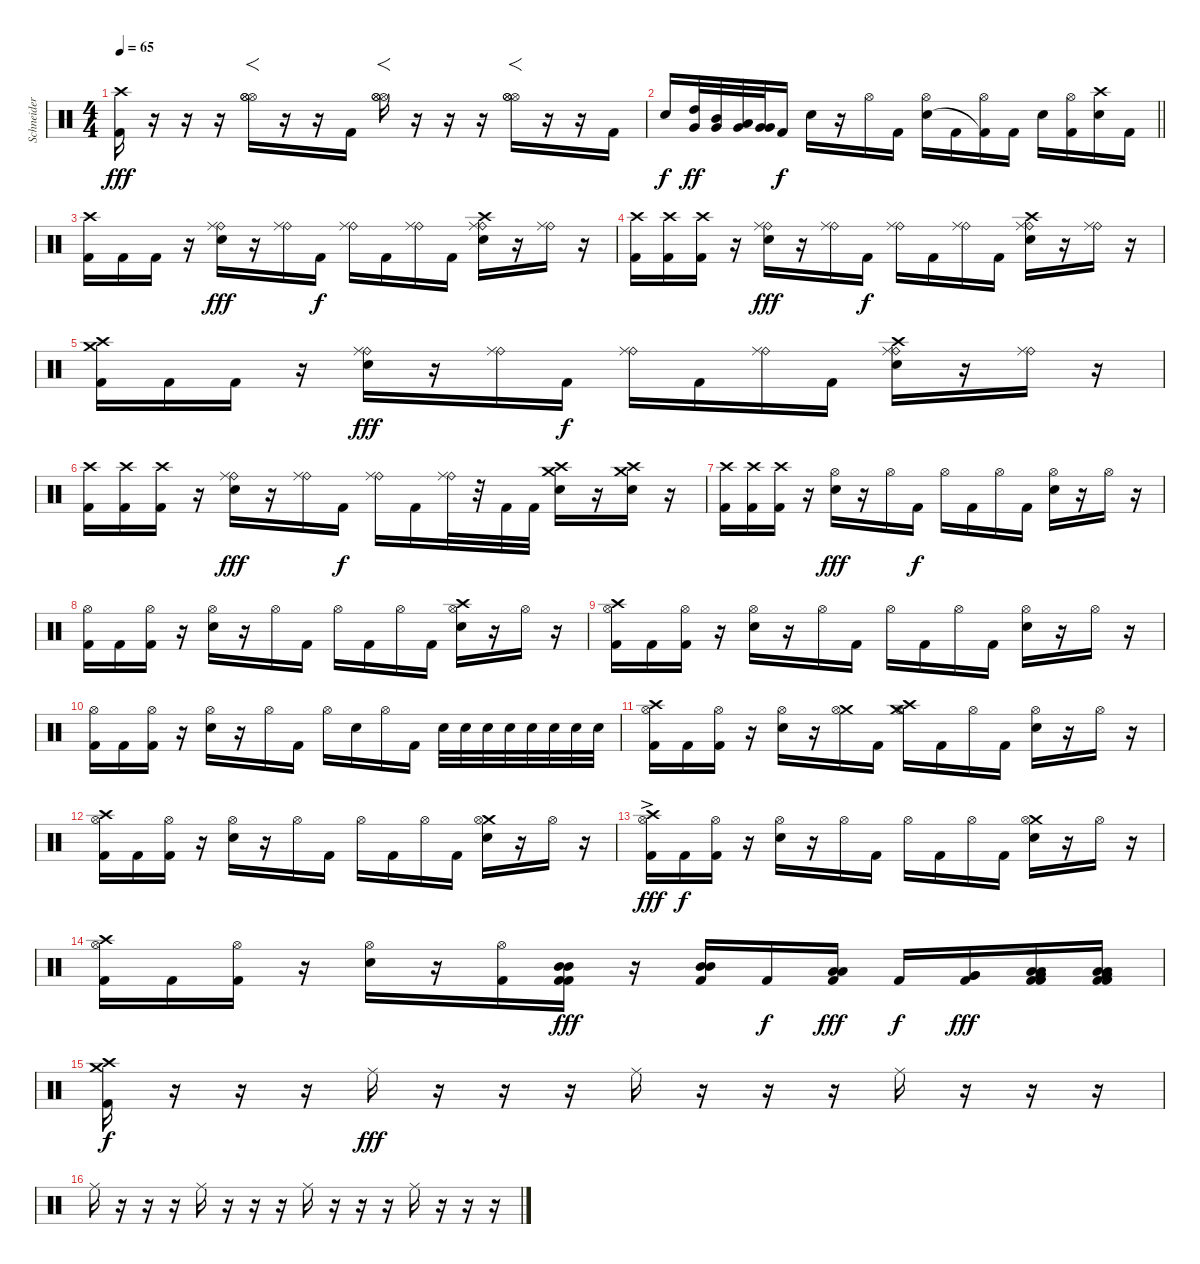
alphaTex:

\track ("Schneider" "Schneider") {instrument percussion}
\staff {score}
\articulation defaults
\ts (4 4)
\tempo 65
\clef neutral
\ks c
("Crash high (hit)" "Kick (hit) 2").16{dy fff} r.16 r.16 r.16 ("Hi-Hat (open)" "Hi-Hat (open)" "Hi-Hat (open)").16{f} r.16 r.16 "Kick (hit) 2".16 ("Hi-Hat (open)" "Hi-Hat (open)" "Hi-Hat (open)").16{f} r.16 r.16 r.16 ("Hi-Hat (open)" "Hi-Hat (open)" "Hi-Hat (open)").16{f} r.16 r.16 "Kick (hit) 2".16 |
\barLineRight lightlight "Electric Snare (hit)".16{dy f}
("Very Low Tom (hit)" "High Tom (hit)").32{dy ff} ("Very Low Tom (hit)" "Mid Tom (hit)").32 ("Very Low Tom (hit)" "Low Tom (hit)").32 ("Very Low Tom (hit)" "Very Low Tom (hit)").32 "Kick (hit) 2".16{dy f} "Electric Snare (hit)".16 r.16 "Hi-Hat (open)".16 "Kick (hit) 2".16 ("Hi-Hat (open)" "Electric Snare (hit)").16 "Kick (hit) 2".16 ("Hi-Hat (open)" "Kick (hit) 2"{t}).16 "Kick (hit) 2".16 "Electric Snare (hit)".16 ("Hi-Hat (open)" "Kick (hit) 2").16 ("Crash high (hit)" "Electric Snare (hit)").16 "Kick (hit) 2".16 |
("Crash high (hit)" "Kick (hit) 2").16 "Kick (hit) 2".16 "Kick (hit) 2".16 r.16 ("Ride (bell)" "Ride (middle)" "Electric Snare (hit)").16{dy fff} r.16 ("Ride (bell)" "Ride (middle)").16 "Kick (hit) 2".16{dy f} ("Ride (bell)" "Ride (middle)").16 "Kick (hit) 2".16 ("Ride (bell)" "Ride (middle)").16 "Kick (hit) 2".16 ("Crash high (hit)" "Ride (bell)" "Ride (middle)" "Electric Snare (hit)").16 r.16 ("Ride (bell)" "Ride (middle)").16 r.16 |
("Crash high (hit)" "Kick (hit) 2").16 ("Crash high (hit)" "Kick (hit) 2").16 ("Crash high (hit)" "Kick (hit) 2").16 r.16 ("Ride (bell)" "Ride (middle)" "Electric Snare (hit)").16{dy fff} r.16 ("Ride (bell)" "Ride (middle)").16 "Kick (hit) 2".16{dy f} ("Ride (bell)" "Ride (middle)").16 "Kick (hit) 2".16 ("Ride (bell)" "Ride (middle)").16 "Kick (hit) 2".16 ("Crash high (hit)" "Ride (bell)" "Ride (middle)" "Electric Snare (hit)").16 r.16 ("Ride (bell)" "Ride (middle)").16 r.16 |
("Crash high (hit)" "Crash medium (hit)" "Kick (hit) 2").16 "Kick (hit) 2".16 "Kick (hit) 2".16 r.16 ("Ride (bell)" "Ride (middle)" "Electric Snare (hit)").16{dy fff} r.16 ("Ride (bell)" "Ride (middle)").16 "Kick (hit) 2".16{dy f} ("Ride (bell)" "Ride (middle)").16 "Kick (hit) 2".16 ("Ride (bell)" "Ride (middle)").16 "Kick (hit) 2".16 ("Crash high (hit)" "Ride (bell)" "Ride (middle)" "Electric Snare (hit)").16 r.16 ("Ride (bell)" "Ride (middle)").16 r.16 |
("Crash high (hit)" "Kick (hit) 2").16 ("Crash high (hit)" "Kick (hit) 2").16 ("Crash high (hit)" "Kick (hit) 2").16 r.16 ("Ride (bell)" "Ride (middle)" "Electric Snare (hit)").16{dy fff} r.16 ("Ride (bell)" "Ride (middle)").16 "Kick (hit) 2".16{dy f} ("Ride (bell)" "Ride (middle)").16 "Kick (hit) 2".16 ("Ride (bell)" "Ride (middle)").32 r.32 "Kick (hit) 2".32 "Kick (hit) 2".32 ("Crash high (hit)" "Crash medium (hit)" "Electric Snare (hit)").16 r.16 ("Crash high (hit)" "Crash medium (hit)" "Electric Snare (hit)").16 r.16 |
("Crash high (hit)" "Kick (hit) 2").16 ("Crash high (hit)" "Kick (hit) 2").16 ("Crash high (hit)" "Kick (hit) 2").16 r.16 ("Hi-Hat (open)" "Electric Snare (hit)").16{dy fff} r.16 "Hi-Hat (open)".16 "Kick (hit) 2".16{dy f} "Hi-Hat (open)".16 "Kick (hit) 2".16 "Hi-Hat (open)".16 "Kick (hit) 2".16 ("Hi-Hat (open)" "Electric Snare (hit)").16 r.16 "Hi-Hat (open)".16 r.16 |
("Hi-Hat (open)" "Kick (hit) 2").16 "Kick (hit) 2".16 ("Hi-Hat (open)" "Kick (hit) 2").16 r.16 ("Hi-Hat (open)" "Electric Snare (hit)").16 r.16 "Hi-Hat (open)".16 "Kick (hit) 2".16 "Hi-Hat (open)".16 "Kick (hit) 2".16 "Hi-Hat (open)".16 "Kick (hit) 2".16 ("Crash high (hit)" "Hi-Hat (open)" "Electric Snare (hit)").16 r.16 "Hi-Hat (open)".16 r.16 |
("Crash high (hit)" "Hi-Hat (open)" "Kick (hit) 2").16 "Kick (hit) 2".16 ("Hi-Hat (open)" "Kick (hit) 2").16 r.16 ("Hi-Hat (open)" "Electric Snare (hit)").16 r.16 "Hi-Hat (open)".16 "Kick (hit) 2".16 "Hi-Hat (open)".16 "Kick (hit) 2".16 "Hi-Hat (open)".16 "Kick (hit) 2".16 ("Hi-Hat (open)" "Electric Snare (hit)").16 r.16 "Hi-Hat (open)".16 r.16 |
("Hi-Hat (open)" "Kick (hit) 2").16 "Kick (hit) 2".16 ("Hi-Hat (open)" "Kick (hit) 2").16 r.16 ("Hi-Hat (open)" "Electric Snare (hit)").16 r.16 "Hi-Hat (open)".16 "Kick (hit) 2".16 "Hi-Hat (open)".16 "Electric Snare (hit)".16 "Hi-Hat (open)".16 "Kick (hit) 2".16 "Electric Snare (hit)".32 "Electric Snare (hit)".32 "Electric Snare (hit)".32 "Electric Snare (hit)".32 "Electric Snare (hit)".32 "Electric Snare (hit)".32 "Electric Snare (hit)".32 "Electric Snare (hit)".32 |
("Crash high (hit)" "Hi-Hat (open)" "Kick (hit) 2").16 "Kick (hit) 2".16 ("Hi-Hat (open)" "Kick (hit) 2").16 r.16 ("Hi-Hat (open)" "Electric Snare (hit)").16 r.16 ("Crash medium (hit)" "Hi-Hat (open)").16 "Kick (hit) 2".16 ("Crash high (hit)" "Crash medium (hit)" "Hi-Hat (open)").16 "Kick (hit) 2".16 "Hi-Hat (open)".16 "Kick (hit) 2".16 ("Hi-Hat (open)" "Electric Snare (hit)").16 r.16 "Hi-Hat (open)".16 r.16 |
("Crash high (hit)" "Hi-Hat (open)" "Kick (hit) 2").16 "Kick (hit) 2".16 ("Hi-Hat (open)" "Kick (hit) 2").16 r.16 ("Hi-Hat (open)" "Electric Snare (hit)").16 r.16 "Hi-Hat (open)".16 "Kick (hit) 2".16 "Hi-Hat (open)".16 "Kick (hit) 2".16 "Hi-Hat (open)".16 "Kick (hit) 2".16 ("Crash medium (hit)" "Hi-Hat (open)" "Electric Snare (hit)").16 r.16 "Hi-Hat (open)".16 r.16 |
("Crash high (hit)"{ac} "Hi-Hat (open)" "Kick (hit) 2").16{dy fff} "Kick (hit) 2".16{dy f} ("Hi-Hat (open)" "Kick (hit) 2").16 r.16 ("Hi-Hat (open)" "Electric Snare (hit)").16 r.16 "Hi-Hat (open)".16 "Kick (hit) 2".16 "Hi-Hat (open)".16 "Kick (hit) 2".16 "Hi-Hat (open)".16 "Kick (hit) 2".16 ("Crash medium (hit)" "Hi-Hat (open)" "Electric Snare (hit)").16 r.16 "Hi-Hat (open)".16 r.16 |
("Crash high (hit)" "Hi-Hat (open)" "Kick (hit) 2").16 "Kick (hit) 2".16 ("Hi-Hat (open)" "Kick (hit) 2").16 r.16 ("Hi-Hat (open)" "Electric Snare (hit)").16 r.16 ("Hi-Hat (open)" "Kick (hit) 2").16 ("Kick (hit) 2" "Mid Tom (hit)" "Mid Tom (hit)" "Kick (hit) 2").16{dy fff} r.16 ("Kick (hit) 2" "Mid Tom (hit)" "Mid Tom (hit)").16 "Kick (hit) 2".16{dy f} ("Kick (hit) 2" "Low Tom (hit)" "Low Tom (hit)").16{dy fff} "Kick (hit) 2".16{dy f} ("Kick (hit) 2" "Very Low Tom (hit)" "Very Low Tom (hit)").16{dy fff} ("Kick (hit) 2" "Low Floor Tom (hit)" "Low Floor Tom (hit)" "Very Low Tom (hit)" "Kick (hit) 2").16 ("Kick (hit) 2" "Low Floor Tom (hit)" "Low Floor Tom (hit)" "Very Low Tom (hit)" "Kick (hit) 2").16 |
("Crash high (hit)" "Crash medium (hit)" "Kick (hit) 2").16{dy f} r.16 r.16 r.16 "Ride (middle)".16{dy fff} r.16 r.16 r.16 "Ride (middle)".16 r.16 r.16 r.16 "Ride (middle)".16 r.16 r.16 r.16 |
"Ride (middle)".16 r.16 r.16 r.16 "Ride (middle)".16 r.16 r.16 r.16 "Ride (middle)".16 r.16 r.16 r.16 "Ride (middle)".16 r.16 r.16 r.16
